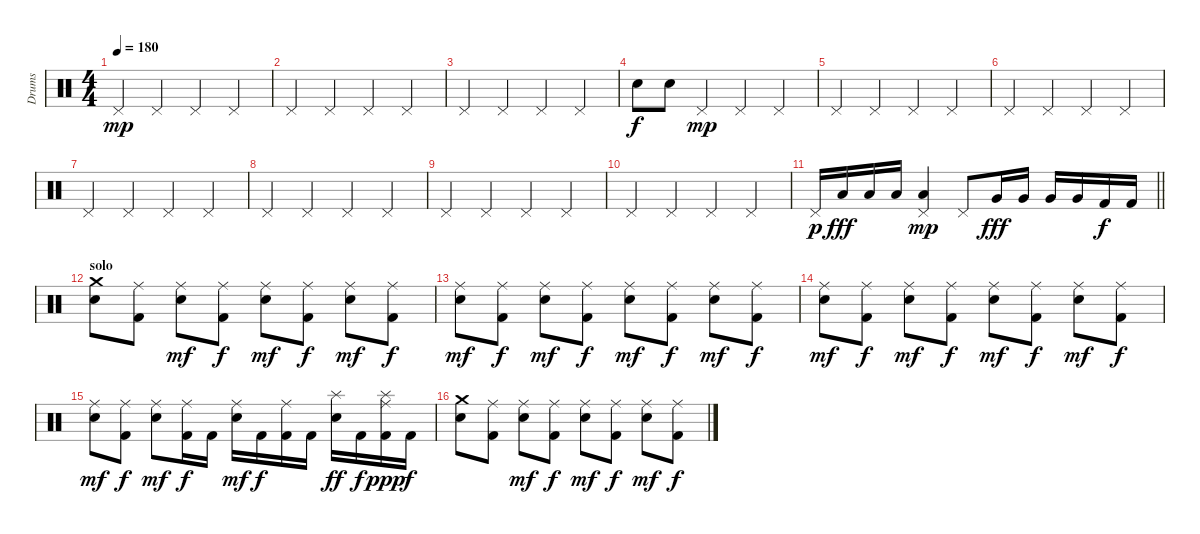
\track ("Drums" "Drums") {instrument percussion}
\staff {score}
\articulation defaults
\ts (4 4)
\tempo 180
\clef neutral
\ks c "Pedal Hi-Hat (hit)".4{dy mp} "Pedal Hi-Hat (hit)".4 "Pedal Hi-Hat (hit)".4 "Pedal Hi-Hat (hit)".4
|
"Pedal Hi-Hat (hit)".4 "Pedal Hi-Hat (hit)".4 "Pedal Hi-Hat (hit)".4 "Pedal Hi-Hat (hit)".4 |
"Pedal Hi-Hat (hit)".4 "Pedal Hi-Hat (hit)".4 "Pedal Hi-Hat (hit)".4 "Pedal Hi-Hat (hit)".4 |
"Snare (hit) 2".8{dy f} "Snare (hit) 2".8 "Pedal Hi-Hat (hit)".4{dy mp} "Pedal Hi-Hat (hit)".4 "Pedal Hi-Hat (hit)".4 |
"Pedal Hi-Hat (hit)".4 "Pedal Hi-Hat (hit)".4 "Pedal Hi-Hat (hit)".4 "Pedal Hi-Hat (hit)".4 |
"Pedal Hi-Hat (hit)".4 "Pedal Hi-Hat (hit)".4 "Pedal Hi-Hat (hit)".4 "Pedal Hi-Hat (hit)".4 |
"Pedal Hi-Hat (hit)".4 "Pedal Hi-Hat (hit)".4 "Pedal Hi-Hat (hit)".4 "Pedal Hi-Hat (hit)".4 |
"Pedal Hi-Hat (hit)".4 "Pedal Hi-Hat (hit)".4 "Pedal Hi-Hat (hit)".4 "Pedal Hi-Hat (hit)".4 |
"Pedal Hi-Hat (hit)".4 "Pedal Hi-Hat (hit)".4 "Pedal Hi-Hat (hit)".4 "Pedal Hi-Hat (hit)".4 |
"Pedal Hi-Hat (hit)".4 "Pedal Hi-Hat (hit)".4 "Pedal Hi-Hat (hit)".4 "Pedal Hi-Hat (hit)".4 |
\barLineRight lightlight "Pedal Hi-Hat (hit)".16{dy p} "Low Tom (hit)".16{dy fff} "Low Tom (hit)".16 "Low Tom (hit)".16
("Low Tom (hit)" "Pedal Hi-Hat (hit)").4{dy mp} "Pedal Hi-Hat (hit)".8 "Very Low Tom (hit)".16{dy fff} "Very Low Tom (hit)".16 "Very Low Tom (hit)".16 "Very Low Tom (hit)".16 "Kick (hit) 2".16{dy f} "Kick (hit) 2".16 |
\section ("" "solo")
("Crash medium (hit)" "Snare (hit) 2").8 ("Kick (hit) 2" "Ride (middle)").8 ("Ride (middle)" "Snare (hit) 2").8{dy mf} ("Kick (hit) 2" "Ride (middle)").8{dy f} ("Ride (middle)" "Snare (hit) 2").8{dy mf} ("Kick (hit) 2" "Ride (middle)").8{dy f} ("Ride (middle)" "Snare (hit) 2").8{dy mf} ("Kick (hit) 2" "Ride (middle)").8{dy f} |
("Ride (middle)" "Snare (hit) 2").8{dy mf} ("Kick (hit) 2" "Ride (middle)").8{dy f} ("Ride (middle)" "Snare (hit) 2").8{dy mf} ("Kick (hit) 2" "Ride (middle)").8{dy f} ("Ride (middle)" "Snare (hit) 2").8{dy mf} ("Kick (hit) 2" "Ride (middle)").8{dy f} ("Ride (middle)" "Snare (hit) 2").8{dy mf} ("Kick (hit) 2" "Ride (middle)").8{dy f} |
("Ride (middle)" "Snare (hit) 2").8{dy mf} ("Kick (hit) 2" "Ride (middle)").8{dy f} ("Ride (middle)" "Snare (hit) 2").8{dy mf} ("Kick (hit) 2" "Ride (middle)").8{dy f} ("Ride (middle)" "Snare (hit) 2").8{dy mf} ("Kick (hit) 2" "Ride (middle)").8{dy f} ("Ride (middle)" "Snare (hit) 2").8{dy mf} ("Kick (hit) 2" "Ride (middle)").8{dy f} |
("Ride (middle)" "Snare (hit) 2").8{dy mf} ("Kick (hit) 2" "Ride (middle)").8{dy f} ("Ride (middle)" "Snare (hit) 2").8{dy mf} ("Kick (hit) 2" "Ride (middle)").16{dy f} "Kick (hit) 2".16 ("Ride (middle)" "Snare (hit) 2").16{dy mf} "Kick (hit) 2".16{dy f} ("Kick (hit) 2" "Ride (middle)").16 "Kick (hit) 2".16 ("Splash (hit)" "Snare (hit) 2").16{dy ff} "Kick (hit) 2".16{dy f} ("Kick (hit) 2" "Splash (hit)" "Ride (middle)").16{dy ppp} "Kick (hit) 2".16{dy f} |
("Crash medium (hit)" "Snare (hit) 2").8 ("Kick (hit) 2" "Ride (middle)").8 ("Ride (middle)" "Snare (hit) 2").8{dy mf} ("Kick (hit) 2" "Ride (middle)").8{dy f} ("Ride (middle)" "Snare (hit) 2").8{dy mf} ("Kick (hit) 2" "Ride (middle)").8{dy f} ("Ride (middle)" "Snare (hit) 2").8{dy mf} ("Kick (hit) 2" "Ride (middle)").8{dy f}
